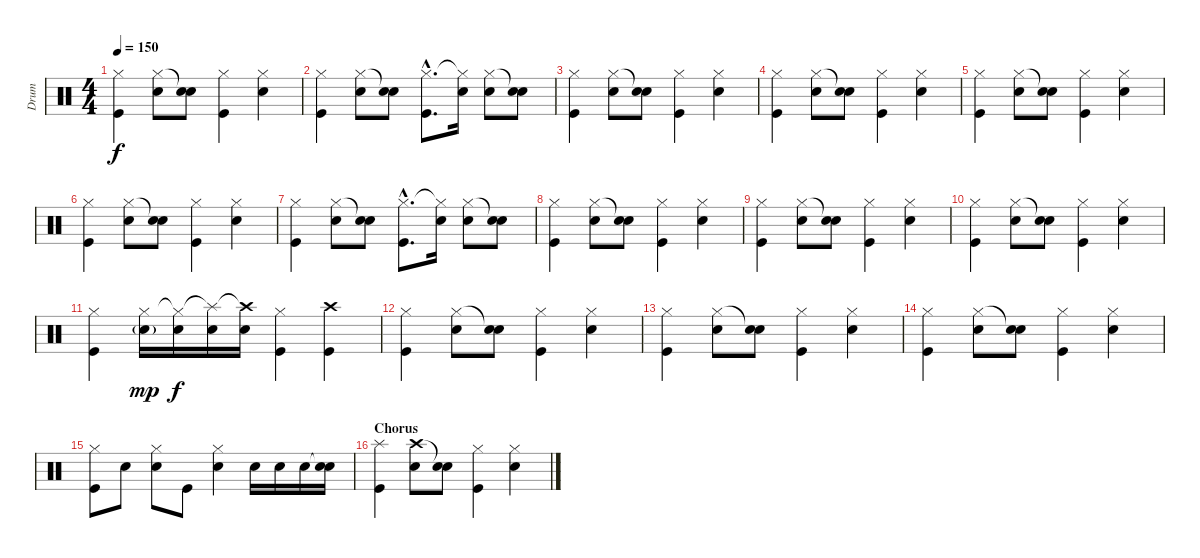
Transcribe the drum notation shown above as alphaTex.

\track ("Drum" "Drum") {instrument percussion}
\staff {score}
\articulation defaults
\ts (4 4)
\tempo 150
\clef neutral
\ks c
("Hi-Hat (closed)" "Kick (hit)").4{dy f} ("Hi-Hat (closed)" "Snare (hit) 2").8 ("Snare (hit)"{t} "Snare (hit) 2").8 ("Hi-Hat (closed)" "Kick (hit)").4 ("Hi-Hat (closed)" "Snare (hit) 2").4 |
("Hi-Hat (closed)" "Kick (hit)").4 ("Hi-Hat (closed)" "Snare (hit) 2").8 ("Snare (hit)"{t} "Snare (hit) 2").8 ("Hi-Hat (closed)"{hac} "Kick (hit)"{hac}).8{d} ("Hi-Hat (closed)"{t} "Snare (hit) 2").16 ("Hi-Hat (closed)" "Snare (hit) 2").8 ("Snare (hit)"{t} "Snare (hit) 2").8 |
("Hi-Hat (closed)" "Kick (hit)").4 ("Hi-Hat (closed)" "Snare (hit) 2").8 ("Snare (hit)"{t} "Snare (hit) 2").8 ("Hi-Hat (closed)" "Kick (hit)").4 ("Hi-Hat (closed)" "Snare (hit) 2").4 |
("Hi-Hat (closed)" "Kick (hit)").4 ("Hi-Hat (closed)" "Snare (hit) 2").8 ("Snare (hit)"{t} "Snare (hit) 2").8 ("Hi-Hat (closed)" "Kick (hit)").4 ("Hi-Hat (closed)" "Snare (hit) 2").4 |
("Hi-Hat (closed)" "Kick (hit)").4 ("Hi-Hat (closed)" "Snare (hit) 2").8 ("Snare (hit)"{t} "Snare (hit) 2").8 ("Hi-Hat (closed)" "Kick (hit)").4 ("Hi-Hat (closed)" "Snare (hit) 2").4 |
("Hi-Hat (closed)" "Kick (hit)").4 ("Hi-Hat (closed)" "Snare (hit) 2").8 ("Snare (hit)"{t} "Snare (hit) 2").8 ("Hi-Hat (closed)" "Kick (hit)").4 ("Hi-Hat (closed)" "Snare (hit) 2").4 |
("Hi-Hat (closed)" "Kick (hit)").4 ("Hi-Hat (closed)" "Snare (hit) 2").8 ("Snare (hit)"{t} "Snare (hit) 2").8 ("Hi-Hat (closed)"{hac} "Kick (hit)"{hac}).8{d} ("Hi-Hat (closed)"{t} "Snare (hit) 2").16 ("Hi-Hat (closed)" "Snare (hit) 2").8 ("Snare (hit)"{t} "Snare (hit) 2").8 |
("Hi-Hat (closed)" "Kick (hit)").4 ("Hi-Hat (closed)" "Snare (hit) 2").8 ("Snare (hit)"{t} "Snare (hit) 2").8 ("Hi-Hat (closed)" "Kick (hit)").4 ("Hi-Hat (closed)" "Snare (hit) 2").4 |
("Hi-Hat (closed)" "Kick (hit)").4 ("Hi-Hat (closed)" "Snare (hit) 2").8 ("Snare (hit)"{t} "Snare (hit) 2").8 ("Hi-Hat (closed)" "Kick (hit)").4 ("Hi-Hat (closed)" "Snare (hit) 2").4 |
("Hi-Hat (closed)" "Kick (hit)").4 ("Hi-Hat (closed)" "Snare (hit) 2").8 ("Snare (hit)"{t} "Snare (hit) 2").8 ("Hi-Hat (closed)" "Kick (hit)").4 ("Hi-Hat (closed)" "Snare (hit) 2").4 |
("Hi-Hat (closed)" "Kick (hit)").4 ("Hi-Hat (closed)" "Snare (hit) 2"{g}).16{dy mp} ("Hi-Hat (closed)"{t} "Snare (hit) 2").16{dy f} ("Splash (hit)"{t} "Snare (hit) 2").16 ("Crash high (hit)"{t} "Snare (hit) 2").16 ("Hi-Hat (closed)" "Kick (hit)").4 ("Crash high (hit)" "Kick (hit)").4 |
("Hi-Hat (closed)" "Kick (hit)").4 ("Hi-Hat (closed)" "Snare (hit) 2").8 ("Snare (hit)"{t} "Snare (hit) 2").8 ("Hi-Hat (closed)" "Kick (hit)").4 ("Hi-Hat (closed)" "Snare (hit) 2").4 |
("Hi-Hat (closed)" "Kick (hit)").4 ("Hi-Hat (closed)" "Snare (hit) 2").8 ("Snare (hit)"{t} "Snare (hit) 2").8 ("Hi-Hat (closed)" "Kick (hit)").4 ("Hi-Hat (closed)" "Snare (hit) 2").4 |
("Hi-Hat (closed)" "Kick (hit)").4 ("Hi-Hat (closed)" "Snare (hit) 2").8 ("Snare (hit)"{t} "Snare (hit) 2").8 ("Hi-Hat (closed)" "Kick (hit)").4 ("Hi-Hat (closed)" "Snare (hit) 2").4 |
("Hi-Hat (closed)" "Kick (hit)").8 "Snare (hit) 2".8 ("Hi-Hat (closed)" "Snare (hit) 2").8 "Kick (hit)".8 ("Hi-Hat (closed)" "Snare (hit) 2").4 "Snare (hit) 2".16 "Snare (hit) 2".16 "Snare (hit) 2".16 ("Snare (hit)"{t} "Snare (hit) 2").16 |
\section ("" "Chorus")
("Splash (hit)" "Kick (hit)").4 ("Crash high (hit)" "Snare (hit) 2").8 ("Snare (hit)"{t} "Snare (hit) 2").8 ("Hi-Hat (closed)" "Kick (hit)").4 ("Hi-Hat (closed)" "Snare (hit) 2").4
